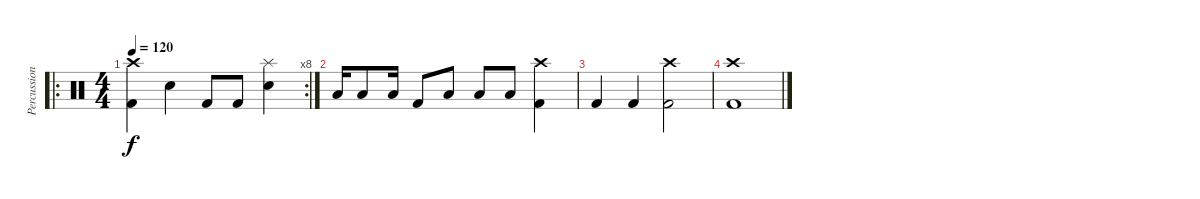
\track ("Percussion" "Percussion") {instrument percussion}
\staff {score}
\articulation defaults
\ro
\rc 8
\ts (4 4)
\tempo 120
\clef neutral
\ks c
("Crash high (hit)" "Kick (hit) 2").4{dy f} "Snare (hit) 2".4 "Kick (hit) 2".8 "Kick (hit) 2".8 ("Splash (hit)" "Snare (hit) 2").4 |
"Low Tom (hit)".16 "Low Tom (hit)".8 "Low Tom (hit)".16 "Kick (hit) 2".8 "Low Tom (hit)".8 "Low Tom (hit)".8 "Low Tom (hit)".8 ("Crash high (hit)" "Kick (hit) 2").4 |
"Kick (hit) 2".4 "Kick (hit) 2".4 ("Kick (hit) 2" "Crash high (hit)").2 |
("Kick (hit) 2" "Crash high (hit)").1
